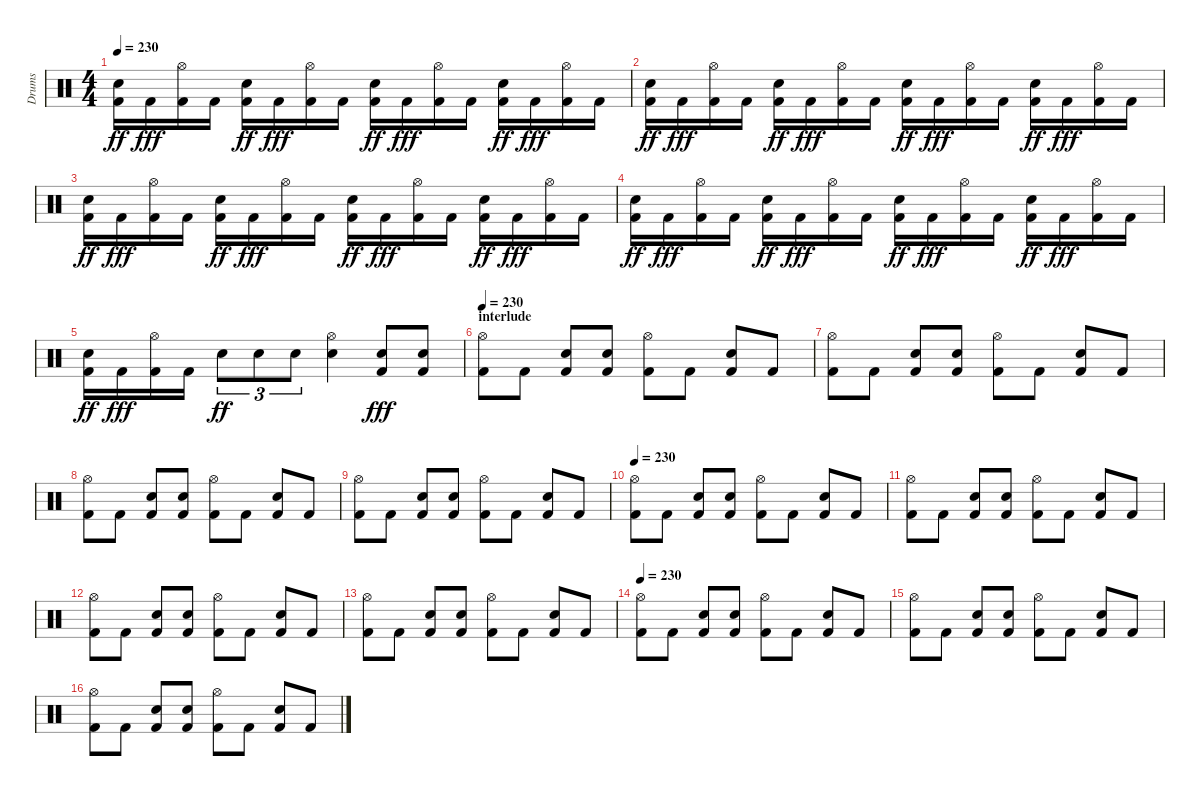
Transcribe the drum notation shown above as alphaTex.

\track ("Drums" "Drums") {instrument percussion}
\staff {score}
\articulation defaults
\ts (4 4)
\tempo 230
\clef neutral
\ks c
("Kick (hit) 2" "Electric Snare (hit)").16{dy ff} "Kick (hit) 2".16{dy fff} ("Kick (hit) 2" "Hi-Hat (open)").16 "Kick (hit) 2".16 ("Kick (hit) 2" "Electric Snare (hit)").16{dy ff} "Kick (hit) 2".16{dy fff} ("Kick (hit) 2" "Hi-Hat (open)").16 "Kick (hit) 2".16 ("Kick (hit) 2" "Electric Snare (hit)").16{dy ff} "Kick (hit) 2".16{dy fff} ("Kick (hit) 2" "Hi-Hat (open)").16 "Kick (hit) 2".16 ("Kick (hit) 2" "Electric Snare (hit)").16{dy ff} "Kick (hit) 2".16{dy fff} ("Kick (hit) 2" "Hi-Hat (open)").16 "Kick (hit) 2".16 |
("Kick (hit) 2" "Electric Snare (hit)").16{dy ff} "Kick (hit) 2".16{dy fff} ("Kick (hit) 2" "Hi-Hat (open)").16 "Kick (hit) 2".16 ("Kick (hit) 2" "Electric Snare (hit)").16{dy ff} "Kick (hit) 2".16{dy fff} ("Kick (hit) 2" "Hi-Hat (open)").16 "Kick (hit) 2".16 ("Kick (hit) 2" "Electric Snare (hit)").16{dy ff} "Kick (hit) 2".16{dy fff} ("Kick (hit) 2" "Hi-Hat (open)").16 "Kick (hit) 2".16 ("Kick (hit) 2" "Electric Snare (hit)").16{dy ff} "Kick (hit) 2".16{dy fff} ("Kick (hit) 2" "Hi-Hat (open)").16 "Kick (hit) 2".16 |
("Kick (hit) 2" "Electric Snare (hit)").16{dy ff} "Kick (hit) 2".16{dy fff} ("Kick (hit) 2" "Hi-Hat (open)").16 "Kick (hit) 2".16 ("Kick (hit) 2" "Electric Snare (hit)").16{dy ff} "Kick (hit) 2".16{dy fff} ("Kick (hit) 2" "Hi-Hat (open)").16 "Kick (hit) 2".16 ("Kick (hit) 2" "Electric Snare (hit)").16{dy ff} "Kick (hit) 2".16{dy fff} ("Kick (hit) 2" "Hi-Hat (open)").16 "Kick (hit) 2".16 ("Kick (hit) 2" "Electric Snare (hit)").16{dy ff} "Kick (hit) 2".16{dy fff} ("Kick (hit) 2" "Hi-Hat (open)").16 "Kick (hit) 2".16 |
("Kick (hit) 2" "Electric Snare (hit)").16{dy ff} "Kick (hit) 2".16{dy fff} ("Kick (hit) 2" "Hi-Hat (open)").16 "Kick (hit) 2".16 ("Kick (hit) 2" "Electric Snare (hit)").16{dy ff} "Kick (hit) 2".16{dy fff} ("Kick (hit) 2" "Hi-Hat (open)").16 "Kick (hit) 2".16 ("Kick (hit) 2" "Electric Snare (hit)").16{dy ff} "Kick (hit) 2".16{dy fff} ("Kick (hit) 2" "Hi-Hat (open)").16 "Kick (hit) 2".16 ("Kick (hit) 2" "Electric Snare (hit)").16{dy ff} "Kick (hit) 2".16{dy fff} ("Kick (hit) 2" "Hi-Hat (open)").16 "Kick (hit) 2".16 |
("Kick (hit) 2" "Electric Snare (hit)").16{dy ff} "Kick (hit) 2".16{dy fff} ("Kick (hit) 2" "Hi-Hat (open)").16 "Kick (hit) 2".16 "Electric Snare (hit)".8{tu (3 2) dy ff} "Electric Snare (hit)".8{tu (3 2)} "Electric Snare (hit)".8{tu (3 2)} ("Hi-Hat (open)" "Snare (hit) 2").4 ("Snare (hit) 2" "Kick (hit) 2").8{dy fff} ("Snare (hit) 2" "Kick (hit) 2").8 |
\section ("" "interlude")
\tempo 230
("Hi-Hat (open)" "Kick (hit) 2").8 "Kick (hit) 2".8 ("Snare (hit) 2" "Kick (hit) 2").8 ("Snare (hit) 2" "Kick (hit) 2").8 ("Hi-Hat (open)" "Kick (hit) 2").8 "Kick (hit) 2".8 ("Snare (hit) 2" "Kick (hit) 2").8 "Kick (hit) 2".8 |
("Hi-Hat (open)" "Kick (hit) 2").8 "Kick (hit) 2".8 ("Snare (hit) 2" "Kick (hit) 2").8 ("Snare (hit) 2" "Kick (hit) 2").8 ("Hi-Hat (open)" "Kick (hit) 2").8 "Kick (hit) 2".8 ("Snare (hit) 2" "Kick (hit) 2").8 "Kick (hit) 2".8 |
("Hi-Hat (open)" "Kick (hit) 2").8 "Kick (hit) 2".8 ("Snare (hit) 2" "Kick (hit) 2").8 ("Snare (hit) 2" "Kick (hit) 2").8 ("Hi-Hat (open)" "Kick (hit) 2").8 "Kick (hit) 2".8 ("Snare (hit) 2" "Kick (hit) 2").8 "Kick (hit) 2".8 |
("Hi-Hat (open)" "Kick (hit) 2").8 "Kick (hit) 2".8 ("Snare (hit) 2" "Kick (hit) 2").8 ("Snare (hit) 2" "Kick (hit) 2").8 ("Hi-Hat (open)" "Kick (hit) 2").8 "Kick (hit) 2".8 ("Snare (hit) 2" "Kick (hit) 2").8 "Kick (hit) 2".8 |
\tempo 230
("Hi-Hat (open)" "Kick (hit) 2").8 "Kick (hit) 2".8 ("Snare (hit) 2" "Kick (hit) 2").8 ("Snare (hit) 2" "Kick (hit) 2").8 ("Hi-Hat (open)" "Kick (hit) 2").8 "Kick (hit) 2".8 ("Snare (hit) 2" "Kick (hit) 2").8 "Kick (hit) 2".8 |
("Hi-Hat (open)" "Kick (hit) 2").8 "Kick (hit) 2".8 ("Snare (hit) 2" "Kick (hit) 2").8 ("Snare (hit) 2" "Kick (hit) 2").8 ("Hi-Hat (open)" "Kick (hit) 2").8 "Kick (hit) 2".8 ("Snare (hit) 2" "Kick (hit) 2").8 "Kick (hit) 2".8 |
("Hi-Hat (open)" "Kick (hit) 2").8 "Kick (hit) 2".8 ("Snare (hit) 2" "Kick (hit) 2").8 ("Snare (hit) 2" "Kick (hit) 2").8 ("Hi-Hat (open)" "Kick (hit) 2").8 "Kick (hit) 2".8 ("Snare (hit) 2" "Kick (hit) 2").8 "Kick (hit) 2".8 |
("Hi-Hat (open)" "Kick (hit) 2").8 "Kick (hit) 2".8 ("Snare (hit) 2" "Kick (hit) 2").8 ("Snare (hit) 2" "Kick (hit) 2").8 ("Hi-Hat (open)" "Kick (hit) 2").8 "Kick (hit) 2".8 ("Snare (hit) 2" "Kick (hit) 2").8 "Kick (hit) 2".8 |
\tempo 230
("Hi-Hat (open)" "Kick (hit) 2").8 "Kick (hit) 2".8 ("Snare (hit) 2" "Kick (hit) 2").8 ("Snare (hit) 2" "Kick (hit) 2").8 ("Hi-Hat (open)" "Kick (hit) 2").8 "Kick (hit) 2".8 ("Snare (hit) 2" "Kick (hit) 2").8 "Kick (hit) 2".8 |
("Hi-Hat (open)" "Kick (hit) 2").8 "Kick (hit) 2".8 ("Snare (hit) 2" "Kick (hit) 2").8 ("Snare (hit) 2" "Kick (hit) 2").8 ("Hi-Hat (open)" "Kick (hit) 2").8 "Kick (hit) 2".8 ("Snare (hit) 2" "Kick (hit) 2").8 "Kick (hit) 2".8 |
("Hi-Hat (open)" "Kick (hit) 2").8 "Kick (hit) 2".8 ("Snare (hit) 2" "Kick (hit) 2").8 ("Snare (hit) 2" "Kick (hit) 2").8 ("Hi-Hat (open)" "Kick (hit) 2").8 "Kick (hit) 2".8 ("Snare (hit) 2" "Kick (hit) 2").8 "Kick (hit) 2".8
